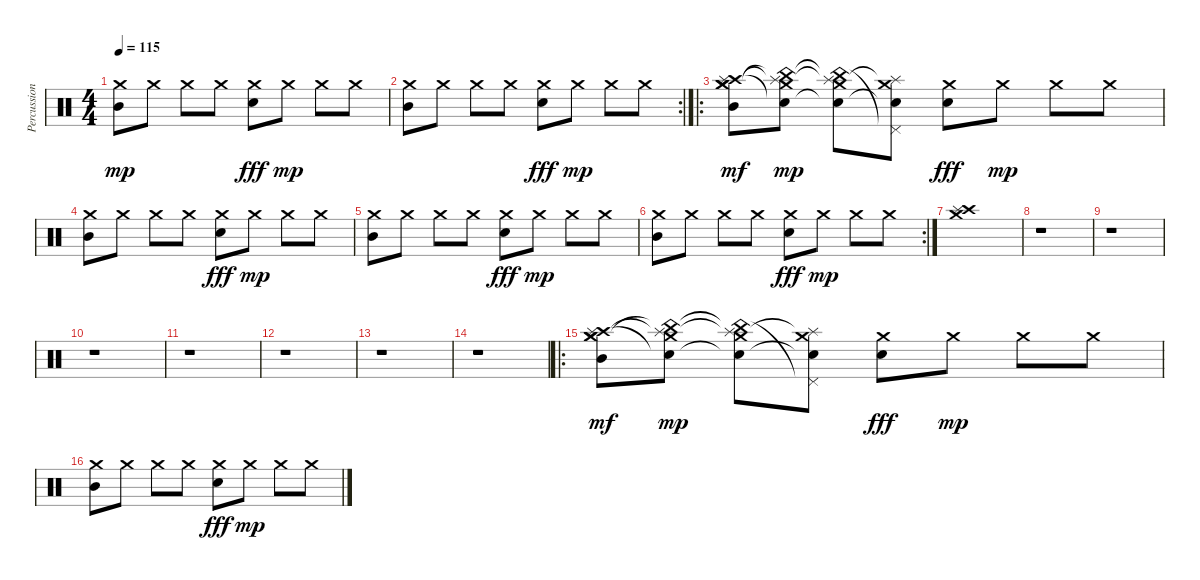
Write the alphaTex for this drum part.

\track ("Percussion" "Percussion") {instrument percussion}
\staff {score}
\articulation defaults
\ts (4 4)
\tempo 115
\clef neutral
\ks c
("Crash medium (hit)" "Mid Tom (hit)").8{dy mp} "Crash medium (hit)".8 "Crash medium (hit)".8 "Crash medium (hit)".8 ("Crash medium (hit)" "Electric Snare (hit)").8{dy fff} "Crash medium (hit)".8{dy mp} "Crash medium (hit)".8 "Crash medium (hit)".8 |
\rc 2
("Crash medium (hit)" "Mid Tom (hit)").8 "Crash medium (hit)".8 "Crash medium (hit)".8 "Crash medium (hit)".8 ("Crash medium (hit)" "Electric Snare (hit)").8{dy fff} "Crash medium (hit)".8{dy mp} "Crash medium (hit)".8 "Crash medium (hit)".8 |
\ro
("Crash medium (hit)" "Crash high (hit)" "Crash medium (hit)" "Splash (hit)" "Mid Tom (hit)").8{dy mf} ("China (hit)"{t} "Snare (hit)"{t} "Crash medium (hit)" "Splash (hit)"{t}).8{dy mp} ("China (hit)"{t} "Snare (hit)"{t} "Crash medium (hit)" "Splash (hit)"{t}).8 ("Pedal Hi-Hat (hit)"{t} "Snare (hit)"{t} "Crash medium (hit)" "Splash (hit)"{t}).8 ("Crash medium (hit)" "Electric Snare (hit)").8{dy fff} "Crash medium (hit)".8{dy mp} "Crash medium (hit)".8 "Crash medium (hit)".8 |
("Crash medium (hit)" "Mid Tom (hit)").8 "Crash medium (hit)".8 "Crash medium (hit)".8 "Crash medium (hit)".8 ("Crash medium (hit)" "Electric Snare (hit)").8{dy fff} "Crash medium (hit)".8{dy mp} "Crash medium (hit)".8 "Crash medium (hit)".8 |
("Crash medium (hit)" "Mid Tom (hit)").8 "Crash medium (hit)".8 "Crash medium (hit)".8 "Crash medium (hit)".8 ("Crash medium (hit)" "Electric Snare (hit)").8{dy fff} "Crash medium (hit)".8{dy mp} "Crash medium (hit)".8 "Crash medium (hit)".8 |
\rc 2
("Crash medium (hit)" "Mid Tom (hit)").8 "Crash medium (hit)".8 "Crash medium (hit)".8 "Crash medium (hit)".8 ("Crash medium (hit)" "Electric Snare (hit)").8{dy fff} "Crash medium (hit)".8{dy mp} "Crash medium (hit)".8 "Crash medium (hit)".8 |
("Crash medium (hit)" "Crash high (hit)" "Splash (hit)").1 |
r.1 |
r.1 |
r.1 |
r.1 |
r.1 |
r.1 |
r.1 |
\ro
("Crash medium (hit)" "Crash high (hit)" "Crash medium (hit)" "Splash (hit)" "Mid Tom (hit)").8{dy mf} ("China (hit)"{t} "Snare (hit)"{t} "Crash medium (hit)" "Splash (hit)"{t}).8{dy mp} ("China (hit)"{t} "Snare (hit)"{t} "Crash medium (hit)" "Splash (hit)"{t}).8 ("Pedal Hi-Hat (hit)"{t} "Snare (hit)"{t} "Crash medium (hit)" "Splash (hit)"{t}).8 ("Crash medium (hit)" "Electric Snare (hit)").8{dy fff} "Crash medium (hit)".8{dy mp} "Crash medium (hit)".8 "Crash medium (hit)".8 |
("Crash medium (hit)" "Mid Tom (hit)").8 "Crash medium (hit)".8 "Crash medium (hit)".8 "Crash medium (hit)".8 ("Crash medium (hit)" "Electric Snare (hit)").8{dy fff} "Crash medium (hit)".8{dy mp} "Crash medium (hit)".8 "Crash medium (hit)".8
